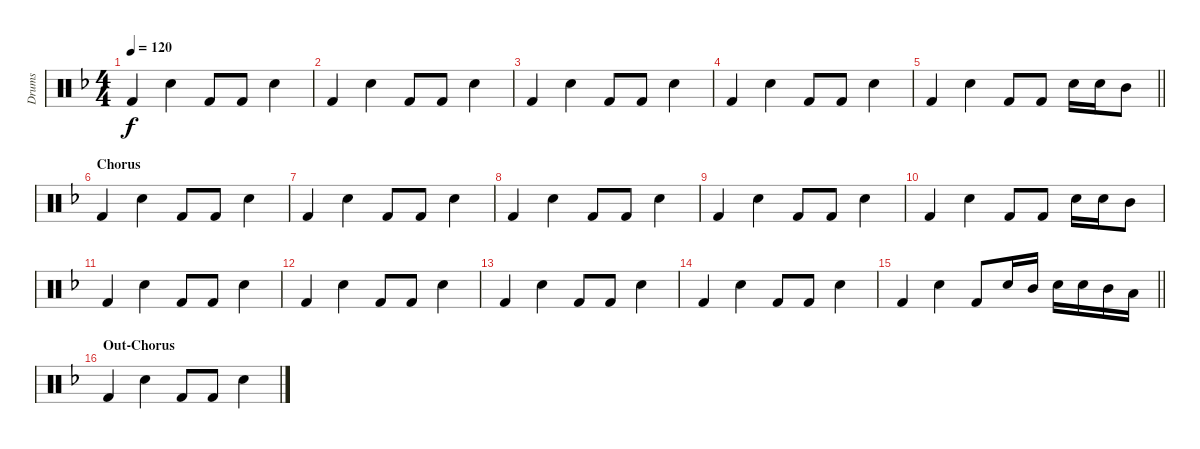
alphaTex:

\track ("Drums" "Drums") {instrument percussion}
\staff {score}
\articulation defaults
\ts (4 4)
\tempo 120
\clef neutral
\ks f "Kick (hit) 2".4{dy f} "Snare (hit) 2".4 "Kick (hit) 2".8 "Kick (hit) 2".8 "Snare (hit) 2".4
|
"Kick (hit) 2".4 "Snare (hit) 2".4 "Kick (hit) 2".8 "Kick (hit) 2".8 "Snare (hit) 2".4 |
"Kick (hit) 2".4 "Snare (hit) 2".4 "Kick (hit) 2".8 "Kick (hit) 2".8 "Snare (hit) 2".4 |
"Kick (hit) 2".4 "Snare (hit) 2".4 "Kick (hit) 2".8 "Kick (hit) 2".8 "Snare (hit) 2".4 |
\barLineRight lightlight "Kick (hit) 2".4 "Snare (hit) 2".4 "Kick (hit) 2".8 "Kick (hit) 2".8 "Snare (hit) 2".16 "Snare (hit) 2".16 "Mid Tom (hit)".8
|
\section ("" "Chorus")
"Kick (hit) 2".4 "Snare (hit) 2".4 "Kick (hit) 2".8 "Kick (hit) 2".8 "Snare (hit) 2".4 |
"Kick (hit) 2".4 "Snare (hit) 2".4 "Kick (hit) 2".8 "Kick (hit) 2".8 "Snare (hit) 2".4 |
"Kick (hit) 2".4 "Snare (hit) 2".4 "Kick (hit) 2".8 "Kick (hit) 2".8 "Snare (hit) 2".4 |
"Kick (hit) 2".4 "Snare (hit) 2".4 "Kick (hit) 2".8 "Kick (hit) 2".8 "Snare (hit) 2".4 |
"Kick (hit) 2".4 "Snare (hit) 2".4 "Kick (hit) 2".8 "Kick (hit) 2".8 "Snare (hit) 2".16 "Snare (hit) 2".16 "Mid Tom (hit)".8 |
"Kick (hit) 2".4 "Snare (hit) 2".4 "Kick (hit) 2".8 "Kick (hit) 2".8 "Snare (hit) 2".4 |
"Kick (hit) 2".4 "Snare (hit) 2".4 "Kick (hit) 2".8 "Kick (hit) 2".8 "Snare (hit) 2".4 |
"Kick (hit) 2".4 "Snare (hit) 2".4 "Kick (hit) 2".8 "Kick (hit) 2".8 "Snare (hit) 2".4 |
"Kick (hit) 2".4 "Snare (hit) 2".4 "Kick (hit) 2".8 "Kick (hit) 2".8 "Snare (hit) 2".4 |
\barLineRight lightlight "Kick (hit) 2".4 "Snare (hit) 2".4 "Kick (hit) 2".8 "Snare (hit) 2".16 "Mid Tom (hit)".16 "Snare (hit) 2".16 "Snare (hit) 2".16 "Mid Tom (hit)".16 "Low Tom (hit)".16
|
\section ("" "Out-Chorus")
"Kick (hit) 2".4 "Snare (hit) 2".4 "Kick (hit) 2".8 "Kick (hit) 2".8 "Snare (hit) 2".4
